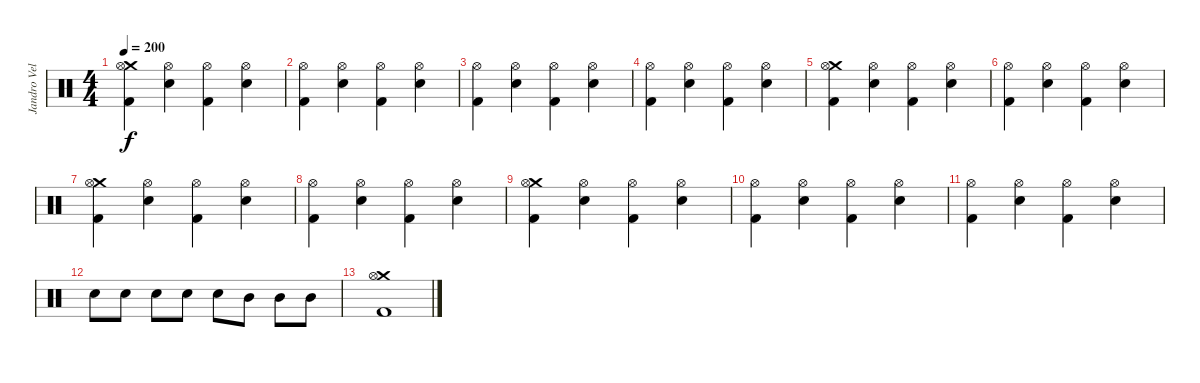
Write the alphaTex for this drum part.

\track ("Jandro Velázquez" "Jandro Vel") {instrument percussion}
\staff {score}
\articulation defaults
\ts (4 4)
\tempo 200
\clef neutral
\ks c
("Crash medium (hit)" "Hi-Hat (open)" "Kick (hit) 2").4{dy f} ("Hi-Hat (open)" "Snare (hit) 2").4 ("Hi-Hat (open)" "Kick (hit) 2").4 ("Hi-Hat (open)" "Snare (hit) 2").4 |
("Hi-Hat (open)" "Kick (hit) 2").4 ("Hi-Hat (open)" "Snare (hit) 2").4 ("Hi-Hat (open)" "Kick (hit) 2").4 ("Hi-Hat (open)" "Snare (hit) 2").4 |
("Hi-Hat (open)" "Kick (hit) 2").4 ("Hi-Hat (open)" "Snare (hit) 2").4 ("Hi-Hat (open)" "Kick (hit) 2").4 ("Hi-Hat (open)" "Snare (hit) 2").4 |
("Hi-Hat (open)" "Kick (hit) 2").4 ("Hi-Hat (open)" "Snare (hit) 2").4 ("Hi-Hat (open)" "Kick (hit) 2").4 ("Hi-Hat (open)" "Snare (hit) 2").4 |
("Crash medium (hit)" "Hi-Hat (open)" "Kick (hit) 2").4 ("Hi-Hat (open)" "Snare (hit) 2").4 ("Hi-Hat (open)" "Kick (hit) 2").4 ("Hi-Hat (open)" "Snare (hit) 2").4 |
("Hi-Hat (open)" "Kick (hit) 2").4 ("Hi-Hat (open)" "Snare (hit) 2").4 ("Hi-Hat (open)" "Kick (hit) 2").4 ("Hi-Hat (open)" "Snare (hit) 2").4 |
("Crash medium (hit)" "Hi-Hat (open)" "Kick (hit) 2").4 ("Hi-Hat (open)" "Snare (hit) 2").4 ("Hi-Hat (open)" "Kick (hit) 2").4 ("Hi-Hat (open)" "Snare (hit) 2").4 |
("Hi-Hat (open)" "Kick (hit) 2").4 ("Hi-Hat (open)" "Snare (hit) 2").4 ("Hi-Hat (open)" "Kick (hit) 2").4 ("Hi-Hat (open)" "Snare (hit) 2").4 |
("Crash medium (hit)" "Hi-Hat (open)" "Kick (hit) 2").4 ("Hi-Hat (open)" "Snare (hit) 2").4 ("Hi-Hat (open)" "Kick (hit) 2").4 ("Hi-Hat (open)" "Snare (hit) 2").4 |
("Hi-Hat (open)" "Kick (hit) 2").4 ("Hi-Hat (open)" "Snare (hit) 2").4 ("Hi-Hat (open)" "Kick (hit) 2").4 ("Hi-Hat (open)" "Snare (hit) 2").4 |
("Hi-Hat (open)" "Kick (hit) 2").4 ("Hi-Hat (open)" "Snare (hit) 2").4 ("Hi-Hat (open)" "Kick (hit) 2").4 ("Hi-Hat (open)" "Snare (hit) 2").4 |
"Electric Snare (hit)".8 "Electric Snare (hit)".8 "Electric Snare (hit)".8 "Electric Snare (hit)".8 "Electric Snare (hit)".8 "Mid Tom (hit)".8 "Mid Tom (hit)".8 "Mid Tom (hit)".8 |
("Crash medium (hit)" "Hi-Hat (open)" "Kick (hit) 2").1
